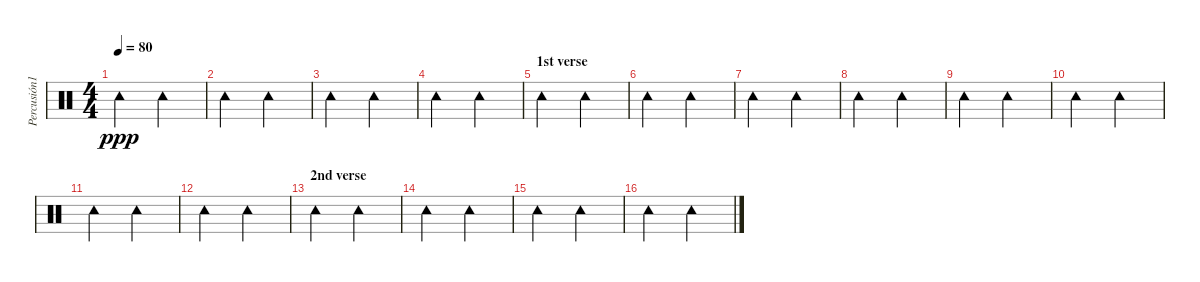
\track ("Percusión1" "Percusión1") {instrument percussion}
\staff {score}
\articulation defaults
\ts (4 4)
\tempo 80
\clef neutral
\ks c "Tambourine (hit)".2{dy ppp} "Tambourine (hit)".2
|
"Tambourine (hit)".2 "Tambourine (hit)".2 |
"Tambourine (hit)".2 "Tambourine (hit)".2 |
"Tambourine (hit)".2 "Tambourine (hit)".2 |
\section ("" "1st verse")
"Tambourine (hit)".2 "Tambourine (hit)".2 |
"Tambourine (hit)".2 "Tambourine (hit)".2 |
"Tambourine (hit)".2 "Tambourine (hit)".2 |
"Tambourine (hit)".2 "Tambourine (hit)".2 |
"Tambourine (hit)".2 "Tambourine (hit)".2 |
"Tambourine (hit)".2 "Tambourine (hit)".2 |
"Tambourine (hit)".2 "Tambourine (hit)".2 |
"Tambourine (hit)".2 "Tambourine (hit)".2 |
\section ("" "2nd verse")
"Tambourine (hit)".2 "Tambourine (hit)".2 |
"Tambourine (hit)".2 "Tambourine (hit)".2 |
"Tambourine (hit)".2 "Tambourine (hit)".2 |
"Tambourine (hit)".2 "Tambourine (hit)".2
